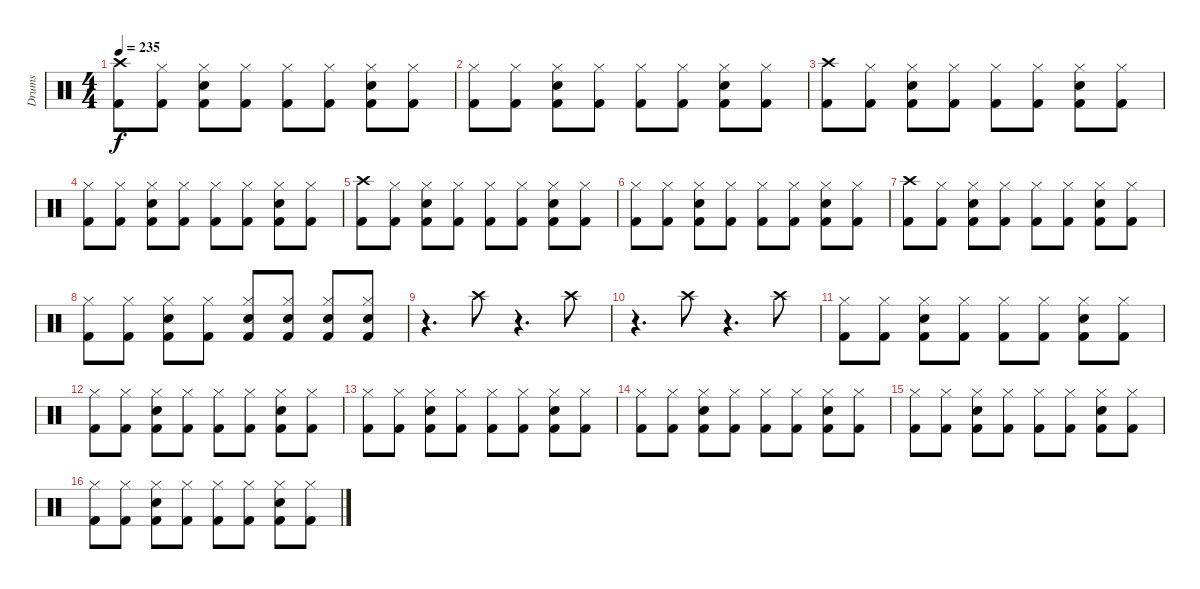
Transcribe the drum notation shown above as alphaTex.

\track ("Drums" "Drums") {instrument percussion}
\staff {score}
\articulation defaults
\ts (4 4)
\tempo 235
\clef neutral
\ks c
("Kick (hit) 2" "Crash high (hit)").8{dy f} ("Kick (hit) 2" "Hi-Hat (closed)").8 ("Kick (hit) 2" "Snare (hit) 2" "Hi-Hat (closed)").8 ("Kick (hit) 2" "Hi-Hat (closed)").8 ("Kick (hit) 2" "Hi-Hat (closed)").8 ("Kick (hit) 2" "Hi-Hat (closed)").8 ("Kick (hit) 2" "Hi-Hat (closed)" "Snare (hit) 2").8 ("Kick (hit) 2" "Hi-Hat (closed)").8 |
("Kick (hit) 2" "Hi-Hat (closed)").8 ("Kick (hit) 2" "Hi-Hat (closed)").8 ("Kick (hit) 2" "Snare (hit) 2" "Hi-Hat (closed)").8 ("Kick (hit) 2" "Hi-Hat (closed)").8 ("Kick (hit) 2" "Hi-Hat (closed)").8 ("Kick (hit) 2" "Hi-Hat (closed)").8 ("Kick (hit) 2" "Hi-Hat (closed)" "Snare (hit) 2").8 ("Kick (hit) 2" "Hi-Hat (closed)").8 |
("Kick (hit) 2" "Crash high (hit)").8 ("Kick (hit) 2" "Hi-Hat (closed)").8 ("Kick (hit) 2" "Snare (hit) 2" "Hi-Hat (closed)").8 ("Kick (hit) 2" "Hi-Hat (closed)").8 ("Kick (hit) 2" "Hi-Hat (closed)").8 ("Kick (hit) 2" "Hi-Hat (closed)").8 ("Kick (hit) 2" "Hi-Hat (closed)" "Snare (hit) 2").8 ("Kick (hit) 2" "Hi-Hat (closed)").8 |
("Kick (hit) 2" "Hi-Hat (closed)").8 ("Kick (hit) 2" "Hi-Hat (closed)").8 ("Kick (hit) 2" "Snare (hit) 2" "Hi-Hat (closed)").8 ("Kick (hit) 2" "Hi-Hat (closed)").8 ("Kick (hit) 2" "Hi-Hat (closed)").8 ("Kick (hit) 2" "Hi-Hat (closed)").8 ("Kick (hit) 2" "Hi-Hat (closed)" "Snare (hit) 2").8 ("Kick (hit) 2" "Hi-Hat (closed)").8 |
("Kick (hit) 2" "Crash high (hit)").8 ("Kick (hit) 2" "Hi-Hat (closed)").8 ("Kick (hit) 2" "Snare (hit) 2" "Hi-Hat (closed)").8 ("Kick (hit) 2" "Hi-Hat (closed)").8 ("Kick (hit) 2" "Hi-Hat (closed)").8 ("Kick (hit) 2" "Hi-Hat (closed)").8 ("Kick (hit) 2" "Hi-Hat (closed)" "Snare (hit) 2").8 ("Kick (hit) 2" "Hi-Hat (closed)").8 |
("Kick (hit) 2" "Hi-Hat (closed)").8 ("Kick (hit) 2" "Hi-Hat (closed)").8 ("Kick (hit) 2" "Snare (hit) 2" "Hi-Hat (closed)").8 ("Kick (hit) 2" "Hi-Hat (closed)").8 ("Kick (hit) 2" "Hi-Hat (closed)").8 ("Kick (hit) 2" "Hi-Hat (closed)").8 ("Kick (hit) 2" "Hi-Hat (closed)" "Snare (hit) 2").8 ("Kick (hit) 2" "Hi-Hat (closed)").8 |
("Kick (hit) 2" "Crash high (hit)").8 ("Kick (hit) 2" "Hi-Hat (closed)").8 ("Kick (hit) 2" "Snare (hit) 2" "Hi-Hat (closed)").8 ("Kick (hit) 2" "Hi-Hat (closed)").8 ("Kick (hit) 2" "Hi-Hat (closed)").8 ("Kick (hit) 2" "Hi-Hat (closed)").8 ("Kick (hit) 2" "Hi-Hat (closed)" "Snare (hit) 2").8 ("Kick (hit) 2" "Hi-Hat (closed)").8 |
("Kick (hit) 2" "Hi-Hat (closed)").8 ("Kick (hit) 2" "Hi-Hat (closed)").8 ("Kick (hit) 2" "Snare (hit) 2" "Hi-Hat (closed)").8 ("Kick (hit) 2" "Hi-Hat (closed)").8 ("Kick (hit) 2" "Hi-Hat (closed)" "Snare (hit) 2").8 ("Kick (hit) 2" "Hi-Hat (closed)" "Snare (hit) 2").8 ("Kick (hit) 2" "Hi-Hat (closed)" "Snare (hit) 2").8 ("Kick (hit) 2" "Hi-Hat (closed)" "Snare (hit) 2").8 |
r.4{d} "Crash high (hit)".8 r.4{d} "Crash high (hit)".8 |
r.4{d} "Crash high (hit)".8 r.4{d} "Crash high (hit)".8 |
("Kick (hit) 2" "Hi-Hat (closed)").8 ("Kick (hit) 2" "Hi-Hat (closed)").8 ("Kick (hit) 2" "Snare (hit) 2" "Hi-Hat (closed)").8 ("Kick (hit) 2" "Hi-Hat (closed)").8 ("Kick (hit) 2" "Hi-Hat (closed)").8 ("Kick (hit) 2" "Hi-Hat (closed)").8 ("Kick (hit) 2" "Hi-Hat (closed)" "Snare (hit) 2").8 ("Kick (hit) 2" "Hi-Hat (closed)").8 |
("Kick (hit) 2" "Hi-Hat (closed)").8 ("Kick (hit) 2" "Hi-Hat (closed)").8 ("Kick (hit) 2" "Snare (hit) 2" "Hi-Hat (closed)").8 ("Kick (hit) 2" "Hi-Hat (closed)").8 ("Kick (hit) 2" "Hi-Hat (closed)").8 ("Kick (hit) 2" "Hi-Hat (closed)").8 ("Kick (hit) 2" "Hi-Hat (closed)" "Snare (hit) 2").8 ("Kick (hit) 2" "Hi-Hat (closed)").8 |
("Kick (hit) 2" "Hi-Hat (closed)").8 ("Kick (hit) 2" "Hi-Hat (closed)").8 ("Kick (hit) 2" "Snare (hit) 2" "Hi-Hat (closed)").8 ("Kick (hit) 2" "Hi-Hat (closed)").8 ("Kick (hit) 2" "Hi-Hat (closed)").8 ("Kick (hit) 2" "Hi-Hat (closed)").8 ("Kick (hit) 2" "Hi-Hat (closed)" "Snare (hit) 2").8 ("Kick (hit) 2" "Hi-Hat (closed)").8 |
("Kick (hit) 2" "Hi-Hat (closed)").8 ("Kick (hit) 2" "Hi-Hat (closed)").8 ("Kick (hit) 2" "Snare (hit) 2" "Hi-Hat (closed)").8 ("Kick (hit) 2" "Hi-Hat (closed)").8 ("Kick (hit) 2" "Hi-Hat (closed)").8 ("Kick (hit) 2" "Hi-Hat (closed)").8 ("Kick (hit) 2" "Hi-Hat (closed)" "Snare (hit) 2").8 ("Kick (hit) 2" "Hi-Hat (closed)").8 |
("Kick (hit) 2" "Hi-Hat (closed)").8 ("Kick (hit) 2" "Hi-Hat (closed)").8 ("Kick (hit) 2" "Snare (hit) 2" "Hi-Hat (closed)").8 ("Kick (hit) 2" "Hi-Hat (closed)").8 ("Kick (hit) 2" "Hi-Hat (closed)").8 ("Kick (hit) 2" "Hi-Hat (closed)").8 ("Kick (hit) 2" "Hi-Hat (closed)" "Snare (hit) 2").8 ("Kick (hit) 2" "Hi-Hat (closed)").8 |
("Kick (hit) 2" "Hi-Hat (closed)").8 ("Kick (hit) 2" "Hi-Hat (closed)").8 ("Kick (hit) 2" "Snare (hit) 2" "Hi-Hat (closed)").8 ("Kick (hit) 2" "Hi-Hat (closed)").8 ("Kick (hit) 2" "Hi-Hat (closed)").8 ("Kick (hit) 2" "Hi-Hat (closed)").8 ("Kick (hit) 2" "Hi-Hat (closed)" "Snare (hit) 2").8 ("Kick (hit) 2" "Hi-Hat (closed)").8
